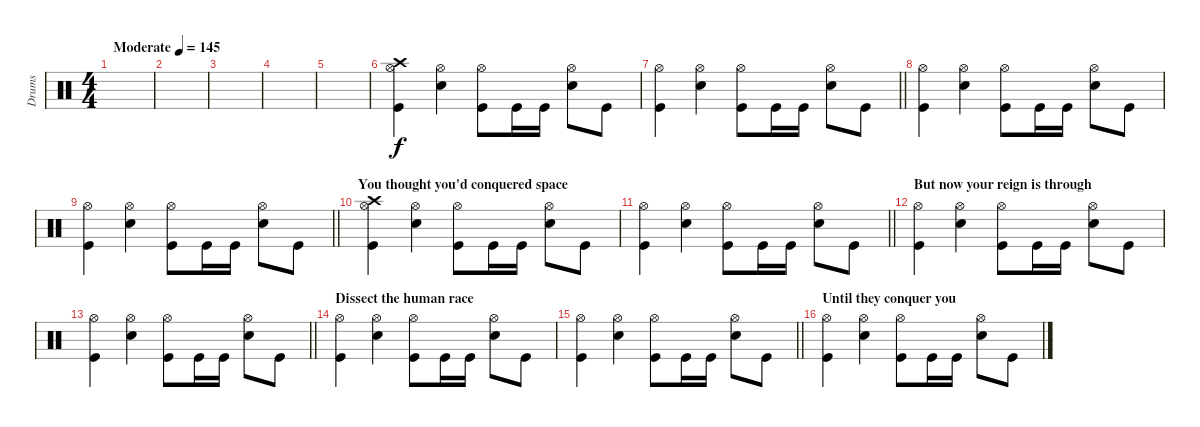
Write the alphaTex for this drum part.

\track ("Drums" "Drums") {instrument percussion}
\staff {score}
\articulation defaults
\ts (4 4)
\tempo (145 "Moderate")
\clef neutral
\ks c
|
|
|
|
|
("Crash high (hit)" "Hi-Hat (open)" "Kick (hit)").4 ("Hi-Hat (open)" "Snare (hit) 2").4 ("Hi-Hat (open)" "Kick (hit)").8 "Kick (hit)".16 "Kick (hit)".16 ("Hi-Hat (open)" "Snare (hit) 2").8 "Kick (hit)".8 |
\barLineRight lightlight
("Hi-Hat (open)" "Kick (hit)").4 ("Hi-Hat (open)" "Snare (hit) 2").4 ("Hi-Hat (open)" "Kick (hit)").8 "Kick (hit)".16 "Kick (hit)".16 ("Hi-Hat (open)" "Snare (hit) 2").8 "Kick (hit)".8 |
("Hi-Hat (open)" "Kick (hit)").4 ("Hi-Hat (open)" "Snare (hit) 2").4 ("Hi-Hat (open)" "Kick (hit)").8 "Kick (hit)".16 "Kick (hit)".16 ("Hi-Hat (open)" "Snare (hit) 2").8 "Kick (hit)".8 |
\barLineRight lightlight
("Hi-Hat (open)" "Kick (hit)").4 ("Hi-Hat (open)" "Snare (hit) 2").4 ("Hi-Hat (open)" "Kick (hit)").8 "Kick (hit)".16 "Kick (hit)".16 ("Hi-Hat (open)" "Snare (hit) 2").8 "Kick (hit)".8 |
\section ("" "You thought you'd conquered space")
("Crash high (hit)" "Hi-Hat (open)" "Kick (hit)").4 ("Hi-Hat (open)" "Snare (hit) 2").4 ("Hi-Hat (open)" "Kick (hit)").8 "Kick (hit)".16 "Kick (hit)".16 ("Hi-Hat (open)" "Snare (hit) 2").8 "Kick (hit)".8 |
\barLineRight lightlight
("Hi-Hat (open)" "Kick (hit)").4 ("Hi-Hat (open)" "Snare (hit) 2").4 ("Hi-Hat (open)" "Kick (hit)").8 "Kick (hit)".16 "Kick (hit)".16 ("Hi-Hat (open)" "Snare (hit) 2").8 "Kick (hit)".8 |
\section ("" "But now your reign is through")
("Hi-Hat (open)" "Kick (hit)").4 ("Hi-Hat (open)" "Snare (hit) 2").4 ("Hi-Hat (open)" "Kick (hit)").8 "Kick (hit)".16 "Kick (hit)".16 ("Hi-Hat (open)" "Snare (hit) 2").8 "Kick (hit)".8 |
\barLineRight lightlight
("Hi-Hat (open)" "Kick (hit)").4 ("Hi-Hat (open)" "Snare (hit) 2").4 ("Hi-Hat (open)" "Kick (hit)").8 "Kick (hit)".16 "Kick (hit)".16 ("Hi-Hat (open)" "Snare (hit) 2").8 "Kick (hit)".8 |
\section ("" "Dissect the human race")
("Hi-Hat (open)" "Kick (hit)").4 ("Hi-Hat (open)" "Snare (hit) 2").4 ("Hi-Hat (open)" "Kick (hit)").8 "Kick (hit)".16 "Kick (hit)".16 ("Hi-Hat (open)" "Snare (hit) 2").8 "Kick (hit)".8 |
\barLineRight lightlight
("Hi-Hat (open)" "Kick (hit)").4 ("Hi-Hat (open)" "Snare (hit) 2").4 ("Hi-Hat (open)" "Kick (hit)").8 "Kick (hit)".16 "Kick (hit)".16 ("Hi-Hat (open)" "Snare (hit) 2").8 "Kick (hit)".8 |
\section ("" "Until they conquer you")
("Hi-Hat (open)" "Kick (hit)").4 ("Hi-Hat (open)" "Snare (hit) 2").4 ("Hi-Hat (open)" "Kick (hit)").8 "Kick (hit)".16 "Kick (hit)".16 ("Hi-Hat (open)" "Snare (hit) 2").8 "Kick (hit)".8
